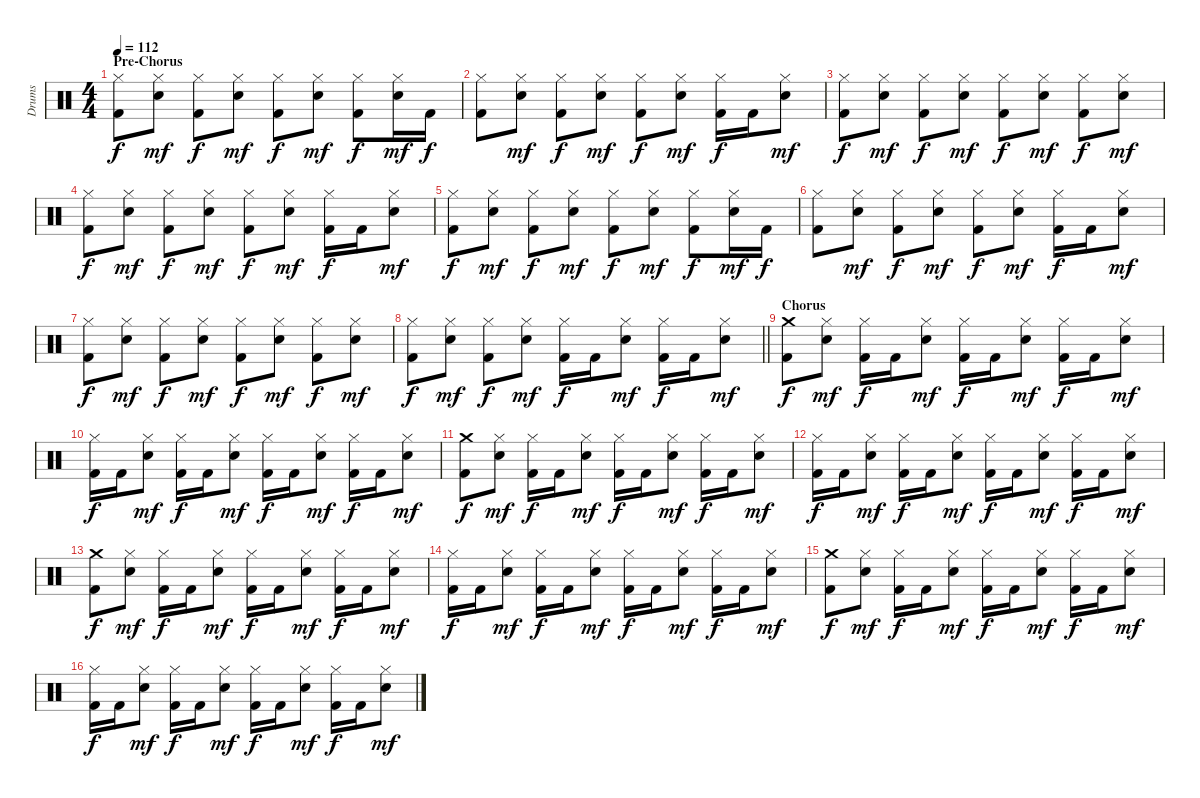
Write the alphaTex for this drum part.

\track ("Drums" "Drums") {instrument percussion}
\staff {score}
\articulation defaults
\ts (4 4)
\section ("" "Pre-Chorus")
\tempo 112
\clef neutral
\ks c
("Hi-Hat (closed)" "Kick (hit) 2").8{dy f} ("Hi-Hat (closed)" "Snare (hit) 2").8{dy mf} ("Hi-Hat (closed)" "Kick (hit) 2").8{dy f} ("Hi-Hat (closed)" "Snare (hit) 2").8{dy mf} ("Hi-Hat (closed)" "Kick (hit) 2").8{dy f} ("Hi-Hat (closed)" "Snare (hit) 2").8{dy mf} ("Hi-Hat (closed)" "Kick (hit) 2").8{dy f} ("Hi-Hat (closed)" "Snare (hit) 2").16{dy mf} "Kick (hit) 2".16{dy f} |
("Hi-Hat (closed)" "Kick (hit) 2").8 ("Hi-Hat (closed)" "Snare (hit) 2").8{dy mf} ("Hi-Hat (closed)" "Kick (hit) 2").8{dy f} ("Hi-Hat (closed)" "Snare (hit) 2").8{dy mf} ("Hi-Hat (closed)" "Kick (hit) 2").8{dy f} ("Hi-Hat (closed)" "Snare (hit) 2").8{dy mf} ("Hi-Hat (closed)" "Kick (hit) 2").16{dy f} "Kick (hit) 2".16 ("Hi-Hat (closed)" "Snare (hit) 2").8{dy mf} |
("Hi-Hat (closed)" "Kick (hit) 2").8{dy f} ("Hi-Hat (closed)" "Snare (hit) 2").8{dy mf} ("Hi-Hat (closed)" "Kick (hit) 2").8{dy f} ("Hi-Hat (closed)" "Snare (hit) 2").8{dy mf} ("Hi-Hat (closed)" "Kick (hit) 2").8{dy f} ("Hi-Hat (closed)" "Snare (hit) 2").8{dy mf} ("Hi-Hat (closed)" "Kick (hit) 2").8{dy f} ("Hi-Hat (closed)" "Snare (hit) 2").8{dy mf} |
("Hi-Hat (closed)" "Kick (hit) 2").8{dy f} ("Hi-Hat (closed)" "Snare (hit) 2").8{dy mf} ("Hi-Hat (closed)" "Kick (hit) 2").8{dy f} ("Hi-Hat (closed)" "Snare (hit) 2").8{dy mf} ("Hi-Hat (closed)" "Kick (hit) 2").8{dy f} ("Hi-Hat (closed)" "Snare (hit) 2").8{dy mf} ("Hi-Hat (closed)" "Kick (hit) 2").16{dy f} "Kick (hit) 2".16 ("Hi-Hat (closed)" "Snare (hit) 2").8{dy mf} |
("Hi-Hat (closed)" "Kick (hit) 2").8{dy f} ("Hi-Hat (closed)" "Snare (hit) 2").8{dy mf} ("Hi-Hat (closed)" "Kick (hit) 2").8{dy f} ("Hi-Hat (closed)" "Snare (hit) 2").8{dy mf} ("Hi-Hat (closed)" "Kick (hit) 2").8{dy f} ("Hi-Hat (closed)" "Snare (hit) 2").8{dy mf} ("Hi-Hat (closed)" "Kick (hit) 2").8{dy f} ("Hi-Hat (closed)" "Snare (hit) 2").16{dy mf} "Kick (hit) 2".16{dy f} |
("Hi-Hat (closed)" "Kick (hit) 2").8 ("Hi-Hat (closed)" "Snare (hit) 2").8{dy mf} ("Hi-Hat (closed)" "Kick (hit) 2").8{dy f} ("Hi-Hat (closed)" "Snare (hit) 2").8{dy mf} ("Hi-Hat (closed)" "Kick (hit) 2").8{dy f} ("Hi-Hat (closed)" "Snare (hit) 2").8{dy mf} ("Hi-Hat (closed)" "Kick (hit) 2").16{dy f} "Kick (hit) 2".16 ("Hi-Hat (closed)" "Snare (hit) 2").8{dy mf} |
("Hi-Hat (closed)" "Kick (hit) 2").8{dy f} ("Hi-Hat (closed)" "Snare (hit) 2").8{dy mf} ("Hi-Hat (closed)" "Kick (hit) 2").8{dy f} ("Hi-Hat (closed)" "Snare (hit) 2").8{dy mf} ("Hi-Hat (closed)" "Kick (hit) 2").8{dy f} ("Hi-Hat (closed)" "Snare (hit) 2").8{dy mf} ("Hi-Hat (closed)" "Kick (hit) 2").8{dy f} ("Hi-Hat (closed)" "Snare (hit) 2").8{dy mf} |
\barLineRight lightlight
("Hi-Hat (closed)" "Kick (hit) 2").8{dy f} ("Hi-Hat (closed)" "Snare (hit) 2").8{dy mf} ("Hi-Hat (closed)" "Kick (hit) 2").8{dy f} ("Hi-Hat (closed)" "Snare (hit) 2").8{dy mf} ("Hi-Hat (closed)" "Kick (hit) 2").16{dy f} "Kick (hit) 2".16 ("Hi-Hat (closed)" "Snare (hit) 2").8{dy mf} ("Hi-Hat (closed)" "Kick (hit) 2").16{dy f} "Kick (hit) 2".16 ("Hi-Hat (closed)" "Snare (hit) 2").8{dy mf} |
\section ("" "Chorus")
("Crash medium (hit)" "Kick (hit) 2").8{dy f} ("Hi-Hat (closed)" "Snare (hit) 2").8{dy mf} ("Hi-Hat (closed)" "Kick (hit) 2").16{dy f} "Kick (hit) 2".16 ("Hi-Hat (closed)" "Snare (hit) 2").8{dy mf} ("Hi-Hat (closed)" "Kick (hit) 2").16{dy f} "Kick (hit) 2".16 ("Hi-Hat (closed)" "Snare (hit) 2").8{dy mf} ("Hi-Hat (closed)" "Kick (hit) 2").16{dy f} "Kick (hit) 2".16 ("Hi-Hat (closed)" "Snare (hit) 2").8{dy mf} |
("Hi-Hat (closed)" "Kick (hit) 2").16{dy f} "Kick (hit) 2".16 ("Hi-Hat (closed)" "Snare (hit) 2").8{dy mf} ("Hi-Hat (closed)" "Kick (hit) 2").16{dy f} "Kick (hit) 2".16 ("Hi-Hat (closed)" "Snare (hit) 2").8{dy mf} ("Hi-Hat (closed)" "Kick (hit) 2").16{dy f} "Kick (hit) 2".16 ("Hi-Hat (closed)" "Snare (hit) 2").8{dy mf} ("Hi-Hat (closed)" "Kick (hit) 2").16{dy f} "Kick (hit) 2".16 ("Hi-Hat (closed)" "Snare (hit) 2").8{dy mf} |
("Crash medium (hit)" "Kick (hit) 2").8{dy f} ("Hi-Hat (closed)" "Snare (hit) 2").8{dy mf} ("Hi-Hat (closed)" "Kick (hit) 2").16{dy f} "Kick (hit) 2".16 ("Hi-Hat (closed)" "Snare (hit) 2").8{dy mf} ("Hi-Hat (closed)" "Kick (hit) 2").16{dy f} "Kick (hit) 2".16 ("Hi-Hat (closed)" "Snare (hit) 2").8{dy mf} ("Hi-Hat (closed)" "Kick (hit) 2").16{dy f} "Kick (hit) 2".16 ("Hi-Hat (closed)" "Snare (hit) 2").8{dy mf} |
("Hi-Hat (closed)" "Kick (hit) 2").16{dy f} "Kick (hit) 2".16 ("Hi-Hat (closed)" "Snare (hit) 2").8{dy mf} ("Hi-Hat (closed)" "Kick (hit) 2").16{dy f} "Kick (hit) 2".16 ("Hi-Hat (closed)" "Snare (hit) 2").8{dy mf} ("Hi-Hat (closed)" "Kick (hit) 2").16{dy f} "Kick (hit) 2".16 ("Hi-Hat (closed)" "Snare (hit) 2").8{dy mf} ("Hi-Hat (closed)" "Kick (hit) 2").16{dy f} "Kick (hit) 2".16 ("Hi-Hat (closed)" "Snare (hit) 2").8{dy mf} |
("Crash medium (hit)" "Kick (hit) 2").8{dy f} ("Hi-Hat (closed)" "Snare (hit) 2").8{dy mf} ("Hi-Hat (closed)" "Kick (hit) 2").16{dy f} "Kick (hit) 2".16 ("Hi-Hat (closed)" "Snare (hit) 2").8{dy mf} ("Hi-Hat (closed)" "Kick (hit) 2").16{dy f} "Kick (hit) 2".16 ("Hi-Hat (closed)" "Snare (hit) 2").8{dy mf} ("Hi-Hat (closed)" "Kick (hit) 2").16{dy f} "Kick (hit) 2".16 ("Hi-Hat (closed)" "Snare (hit) 2").8{dy mf} |
("Hi-Hat (closed)" "Kick (hit) 2").16{dy f} "Kick (hit) 2".16 ("Hi-Hat (closed)" "Snare (hit) 2").8{dy mf} ("Hi-Hat (closed)" "Kick (hit) 2").16{dy f} "Kick (hit) 2".16 ("Hi-Hat (closed)" "Snare (hit) 2").8{dy mf} ("Hi-Hat (closed)" "Kick (hit) 2").16{dy f} "Kick (hit) 2".16 ("Hi-Hat (closed)" "Snare (hit) 2").8{dy mf} ("Hi-Hat (closed)" "Kick (hit) 2").16{dy f} "Kick (hit) 2".16 ("Hi-Hat (closed)" "Snare (hit) 2").8{dy mf} |
("Crash medium (hit)" "Kick (hit) 2").8{dy f} ("Hi-Hat (closed)" "Snare (hit) 2").8{dy mf} ("Hi-Hat (closed)" "Kick (hit) 2").16{dy f} "Kick (hit) 2".16 ("Hi-Hat (closed)" "Snare (hit) 2").8{dy mf} ("Hi-Hat (closed)" "Kick (hit) 2").16{dy f} "Kick (hit) 2".16 ("Hi-Hat (closed)" "Snare (hit) 2").8{dy mf} ("Hi-Hat (closed)" "Kick (hit) 2").16{dy f} "Kick (hit) 2".16 ("Hi-Hat (closed)" "Snare (hit) 2").8{dy mf} |
("Hi-Hat (closed)" "Kick (hit) 2").16{dy f} "Kick (hit) 2".16 ("Hi-Hat (closed)" "Snare (hit) 2").8{dy mf} ("Hi-Hat (closed)" "Kick (hit) 2").16{dy f} "Kick (hit) 2".16 ("Hi-Hat (closed)" "Snare (hit) 2").8{dy mf} ("Hi-Hat (closed)" "Kick (hit) 2").16{dy f} "Kick (hit) 2".16 ("Hi-Hat (closed)" "Snare (hit) 2").8{dy mf} ("Hi-Hat (closed)" "Kick (hit) 2").16{dy f} "Kick (hit) 2".16 ("Hi-Hat (closed)" "Snare (hit) 2").8{dy mf}
